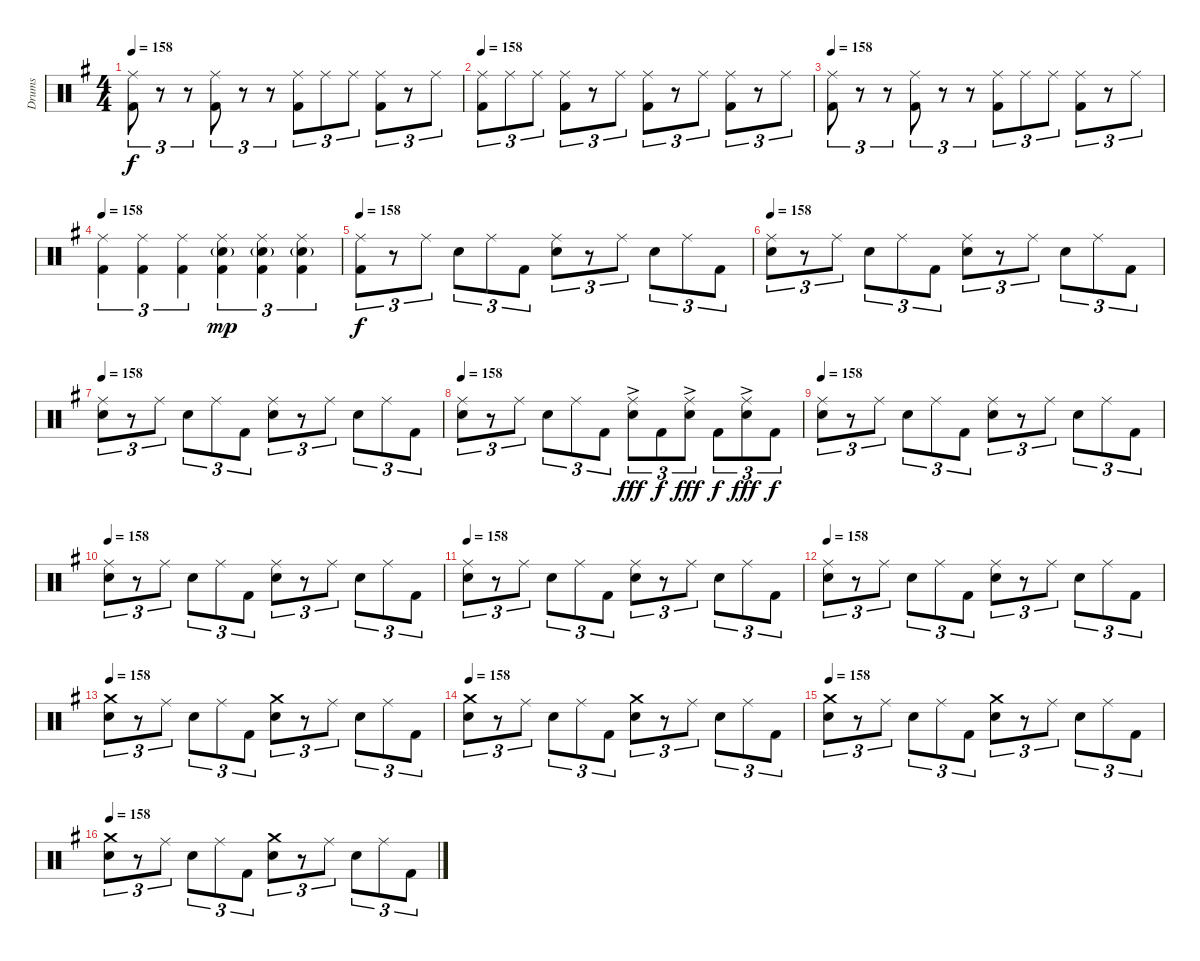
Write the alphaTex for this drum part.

\track ("Drums" "Drums") {instrument percussion}
\staff {score}
\articulation defaults
\ts (4 4)
\tempo 158
\clef neutral
\ks eminor
("Ride (middle)" "Kick (hit) 2").8{tu (3 2) dy f} r.8{tu (3 2)} r.8{tu (3 2)} ("Ride (middle)" "Kick (hit) 2").8{tu (3 2)} r.8{tu (3 2)} r.8{tu (3 2)} ("Ride (middle)" "Kick (hit) 2").8{tu (3 2)} "Ride (middle)".8{tu (3 2)} "Ride (middle)".8{tu (3 2)} ("Ride (middle)" "Kick (hit) 2").8{tu (3 2)} r.8{tu (3 2)} "Ride (middle)".8{tu (3 2)} |
\tempo 158
("Ride (middle)" "Kick (hit) 2").8{tu (3 2)} "Ride (middle)".8{tu (3 2)} "Ride (middle)".8{tu (3 2)} ("Ride (middle)" "Kick (hit) 2").8{tu (3 2)} r.8{tu (3 2)} "Ride (middle)".8{tu (3 2)} ("Ride (middle)" "Kick (hit) 2").8{tu (3 2)} r.8{tu (3 2)} "Ride (middle)".8{tu (3 2)} ("Ride (middle)" "Kick (hit) 2").8{tu (3 2)} r.8{tu (3 2)} "Ride (middle)".8{tu (3 2)} |
\tempo 158
("Ride (middle)" "Kick (hit) 2").8{tu (3 2)} r.8{tu (3 2)} r.8{tu (3 2)} ("Ride (middle)" "Kick (hit) 2").8{tu (3 2)} r.8{tu (3 2)} r.8{tu (3 2)} ("Ride (middle)" "Kick (hit) 2").8{tu (3 2)} "Ride (middle)".8{tu (3 2)} "Ride (middle)".8{tu (3 2)} ("Ride (middle)" "Kick (hit) 2").8{tu (3 2)} r.8{tu (3 2)} "Ride (middle)".8{tu (3 2)} |
\tempo 158
("Ride (middle)" "Kick (hit) 2").4{tu (3 2)} ("Ride (middle)" "Kick (hit) 2").4{tu (3 2)} ("Ride (middle)" "Kick (hit) 2").4{tu (3 2)} ("Ride (middle)" "Snare (hit) 2"{g} "Kick (hit) 2").4{tu (3 2) dy mp} ("Ride (middle)" "Snare (hit) 2"{g} "Kick (hit) 2").4{tu (3 2)} ("Ride (middle)" "Snare (hit) 2"{g} "Kick (hit) 2").4{tu (3 2)} |
\tempo 158
("Ride (middle)" "Kick (hit) 2").8{tu (3 2) dy f} r.8{tu (3 2)} "Ride (middle)".8{tu (3 2)} "Snare (hit) 2".8{tu (3 2)} "Ride (middle)".8{tu (3 2)} "Kick (hit) 2".8{tu (3 2)} ("Ride (middle)" "Snare (hit) 2").8{tu (3 2)} r.8{tu (3 2)} "Ride (middle)".8{tu (3 2)} "Snare (hit) 2".8{tu (3 2)} "Ride (middle)".8{tu (3 2)} "Kick (hit) 2".8{tu (3 2)} |
\tempo 158
("Ride (middle)" "Snare (hit) 2").8{tu (3 2)} r.8{tu (3 2)} "Ride (middle)".8{tu (3 2)} "Snare (hit) 2".8{tu (3 2)} "Ride (middle)".8{tu (3 2)} "Kick (hit) 2".8{tu (3 2)} ("Ride (middle)" "Snare (hit) 2").8{tu (3 2)} r.8{tu (3 2)} "Ride (middle)".8{tu (3 2)} "Snare (hit) 2".8{tu (3 2)} "Ride (middle)".8{tu (3 2)} "Kick (hit) 2".8{tu (3 2)} |
\tempo 158
("Ride (middle)" "Snare (hit) 2").8{tu (3 2)} r.8{tu (3 2)} "Ride (middle)".8{tu (3 2)} "Snare (hit) 2".8{tu (3 2)} "Ride (middle)".8{tu (3 2)} "Kick (hit) 2".8{tu (3 2)} ("Ride (middle)" "Snare (hit) 2").8{tu (3 2)} r.8{tu (3 2)} "Ride (middle)".8{tu (3 2)} "Snare (hit) 2".8{tu (3 2)} "Ride (middle)".8{tu (3 2)} "Kick (hit) 2".8{tu (3 2)} |
\tempo 158
("Ride (middle)" "Snare (hit) 2").8{tu (3 2)} r.8{tu (3 2)} "Ride (middle)".8{tu (3 2)} "Snare (hit) 2".8{tu (3 2)} "Ride (middle)".8{tu (3 2)} "Kick (hit) 2".8{tu (3 2)} ("Ride (middle)" "Snare (hit) 2"{ac}).8{tu (3 2) dy fff} "Kick (hit) 2".8{tu (3 2) dy f} ("Ride (middle)" "Snare (hit) 2"{ac}).8{tu (3 2) dy fff} "Kick (hit) 2".8{tu (3 2) dy f} ("Ride (middle)" "Snare (hit) 2"{ac}).8{tu (3 2) dy fff} "Kick (hit) 2".8{tu (3 2) dy f} |
\tempo 158
("Ride (middle)" "Snare (hit) 2").8{tu (3 2)} r.8{tu (3 2)} "Ride (middle)".8{tu (3 2)} "Snare (hit) 2".8{tu (3 2)} "Ride (middle)".8{tu (3 2)} "Kick (hit) 2".8{tu (3 2)} ("Ride (middle)" "Snare (hit) 2").8{tu (3 2)} r.8{tu (3 2)} "Ride (middle)".8{tu (3 2)} "Snare (hit) 2".8{tu (3 2)} "Ride (middle)".8{tu (3 2)} "Kick (hit) 2".8{tu (3 2)} |
\tempo 158
("Ride (middle)" "Snare (hit) 2").8{tu (3 2)} r.8{tu (3 2)} "Ride (middle)".8{tu (3 2)} "Snare (hit) 2".8{tu (3 2)} "Ride (middle)".8{tu (3 2)} "Kick (hit) 2".8{tu (3 2)} ("Ride (middle)" "Snare (hit) 2").8{tu (3 2)} r.8{tu (3 2)} "Ride (middle)".8{tu (3 2)} "Snare (hit) 2".8{tu (3 2)} "Ride (middle)".8{tu (3 2)} "Kick (hit) 2".8{tu (3 2)} |
\tempo 158
("Ride (middle)" "Snare (hit) 2").8{tu (3 2)} r.8{tu (3 2)} "Ride (middle)".8{tu (3 2)} "Snare (hit) 2".8{tu (3 2)} "Ride (middle)".8{tu (3 2)} "Kick (hit) 2".8{tu (3 2)} ("Ride (middle)" "Snare (hit) 2").8{tu (3 2)} r.8{tu (3 2)} "Ride (middle)".8{tu (3 2)} "Snare (hit) 2".8{tu (3 2)} "Ride (middle)".8{tu (3 2)} "Kick (hit) 2".8{tu (3 2)} |
\tempo 158
("Ride (middle)" "Snare (hit) 2").8{tu (3 2)} r.8{tu (3 2)} "Ride (middle)".8{tu (3 2)} "Snare (hit) 2".8{tu (3 2)} "Ride (middle)".8{tu (3 2)} "Kick (hit) 2".8{tu (3 2)} ("Ride (middle)" "Snare (hit) 2").8{tu (3 2)} r.8{tu (3 2)} "Ride (middle)".8{tu (3 2)} "Snare (hit) 2".8{tu (3 2)} "Ride (middle)".8{tu (3 2)} "Kick (hit) 2".8{tu (3 2)} |
\tempo 158
("Crash medium (hit)" "Snare (hit) 2").8{tu (3 2)} r.8{tu (3 2)} "Ride (middle)".8{tu (3 2)} "Snare (hit) 2".8{tu (3 2)} "Ride (middle)".8{tu (3 2)} "Kick (hit) 2".8{tu (3 2)} ("Crash medium (hit)" "Snare (hit) 2").8{tu (3 2)} r.8{tu (3 2)} "Ride (middle)".8{tu (3 2)} "Snare (hit) 2".8{tu (3 2)} "Ride (middle)".8{tu (3 2)} "Kick (hit) 2".8{tu (3 2)} |
\tempo 158
("Crash medium (hit)" "Snare (hit) 2").8{tu (3 2)} r.8{tu (3 2)} "Ride (middle)".8{tu (3 2)} "Snare (hit) 2".8{tu (3 2)} "Ride (middle)".8{tu (3 2)} "Kick (hit) 2".8{tu (3 2)} ("Crash medium (hit)" "Snare (hit) 2").8{tu (3 2)} r.8{tu (3 2)} "Ride (middle)".8{tu (3 2)} "Snare (hit) 2".8{tu (3 2)} "Ride (middle)".8{tu (3 2)} "Kick (hit) 2".8{tu (3 2)} |
\tempo 158
("Crash medium (hit)" "Snare (hit) 2").8{tu (3 2)} r.8{tu (3 2)} "Ride (middle)".8{tu (3 2)} "Snare (hit) 2".8{tu (3 2)} "Ride (middle)".8{tu (3 2)} "Kick (hit) 2".8{tu (3 2)} ("Crash medium (hit)" "Snare (hit) 2").8{tu (3 2)} r.8{tu (3 2)} "Ride (middle)".8{tu (3 2)} "Snare (hit) 2".8{tu (3 2)} "Ride (middle)".8{tu (3 2)} "Kick (hit) 2".8{tu (3 2)} |
\tempo 158
("Crash medium (hit)" "Snare (hit) 2").8{tu (3 2)} r.8{tu (3 2)} "Ride (middle)".8{tu (3 2)} "Snare (hit) 2".8{tu (3 2)} "Ride (middle)".8{tu (3 2)} "Kick (hit) 2".8{tu (3 2)} ("Crash medium (hit)" "Snare (hit) 2").8{tu (3 2)} r.8{tu (3 2)} "Ride (middle)".8{tu (3 2)} "Snare (hit) 2".8{tu (3 2)} "Ride (middle)".8{tu (3 2)} "Kick (hit) 2".8{tu (3 2)}
